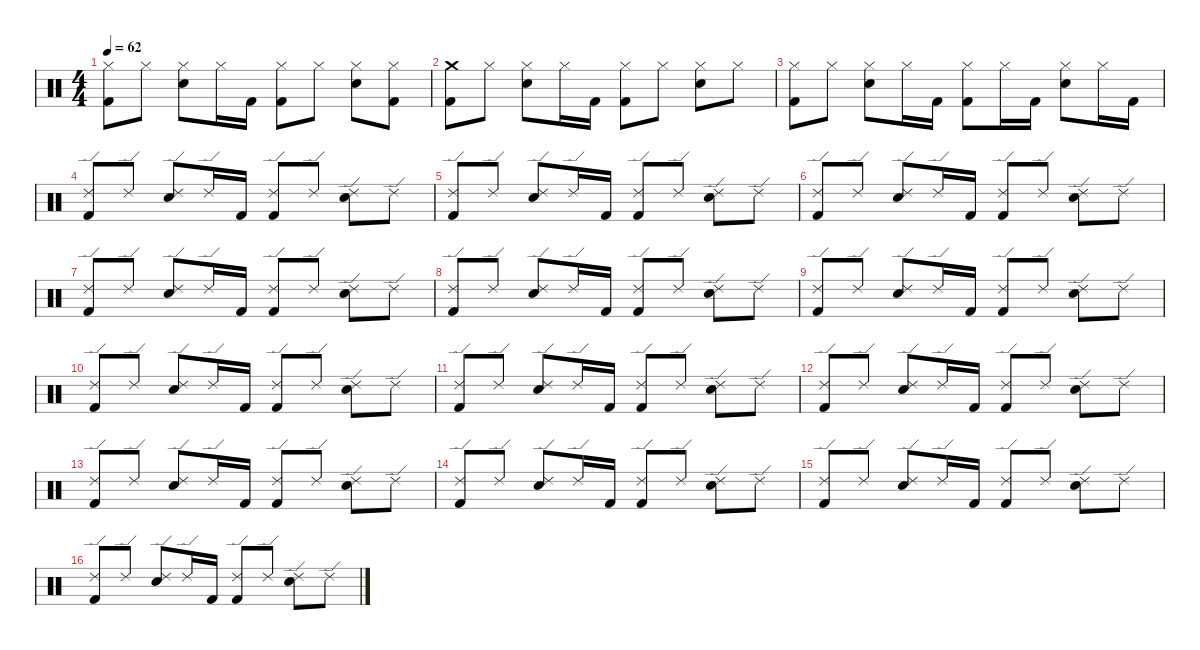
\defaultSystemsLayout 4
\hideDynamics
\bracketExtendMode nobrackets
\singleTrackTrackNamePolicy hidden
\multiTrackTrackNamePolicy hidden
\firstSystemTrackNameMode fullname
\otherSystemsTrackNameOrientation horizontal
\track ("Drums" "drm.") {instrument percussion}
\staff {score}
\articulation defaults
\ts (4 4)
\tempo 62
\clef neutral
\ks c
("Hi-Hat (closed)" "Kick (hit) 2").8{dy f beam Down} "Hi-Hat (closed)".8{beam Down} ("Hi-Hat (closed)" "Snare (hit) 2").8{beam Down} "Hi-Hat (closed)".16{beam Down} "Kick (hit) 2".16{beam Down} ("Hi-Hat (closed)" "Kick (hit) 2").8{beam Down} "Hi-Hat (closed)".8{beam Down} ("Hi-Hat (closed)" "Snare (hit) 2").8{beam Down} ("Hi-Hat (closed)" "Kick (hit) 2").8{beam Down} |
("Crash medium (hit)" "Kick (hit) 2").8{beam Down} "Hi-Hat (closed)".8{beam Down} ("Hi-Hat (closed)" "Snare (hit) 2").8{beam Down} "Hi-Hat (closed)".16{beam Down} "Kick (hit) 2".16{beam Down} ("Hi-Hat (closed)" "Kick (hit) 2").8{beam Down} "Hi-Hat (closed)".8{beam Down} ("Hi-Hat (closed)" "Snare (hit) 2").8{beam Down} "Hi-Hat (closed)".8{beam Down} |
("Hi-Hat (closed)" "Kick (hit) 2").8{beam Down} "Hi-Hat (closed)".8{beam Down} ("Hi-Hat (closed)" "Snare (hit) 2").8{beam Down} "Hi-Hat (closed)".16{beam Down} "Kick (hit) 2".16{beam Down} ("Hi-Hat (closed)" "Kick (hit) 2").8{beam Down} "Hi-Hat (closed)".16{beam Down} "Kick (hit) 2".16{beam Down} ("Hi-Hat (closed)" "Snare (hit) 2").8{beam Down} "Hi-Hat (closed)".16{beam Down} "Kick (hit) 2".16{beam Down} |
("Ride (edge) 2" "Kick (hit) 2").8{beam Up} "Ride (edge) 2".8{beam Up} ("Ride (edge) 2" "Snare (hit) 2").8{beam Up} "Ride (edge) 2".16{beam Up} "Kick (hit) 2".16{beam Up} ("Ride (edge) 2" "Kick (hit) 2").8{beam Up} "Ride (edge) 2".8{beam Up} ("Ride (edge) 2" "Snare (hit) 2").8{beam Down} "Ride (edge) 2".8{beam Down} |
("Ride (edge) 2" "Kick (hit) 2").8{beam Up} "Ride (edge) 2".8{beam Up} ("Ride (edge) 2" "Snare (hit) 2").8{beam Up} "Ride (edge) 2".16{beam Up} "Kick (hit) 2".16{beam Up} ("Ride (edge) 2" "Kick (hit) 2").8{beam Up} "Ride (edge) 2".8{beam Up} ("Ride (edge) 2" "Snare (hit) 2").8{beam Down} "Ride (edge) 2".8{beam Down} |
("Ride (edge) 2" "Kick (hit) 2").8{beam Up} "Ride (edge) 2".8{beam Up} ("Ride (edge) 2" "Snare (hit) 2").8{beam Up} "Ride (edge) 2".16{beam Up} "Kick (hit) 2".16{beam Up} ("Ride (edge) 2" "Kick (hit) 2").8{beam Up} "Ride (edge) 2".8{beam Up} ("Ride (edge) 2" "Snare (hit) 2").8{beam Down} "Ride (edge) 2".8{beam Down} |
("Ride (edge) 2" "Kick (hit) 2").8{beam Up} "Ride (edge) 2".8{beam Up} ("Ride (edge) 2" "Snare (hit) 2").8{beam Up} "Ride (edge) 2".16{beam Up} "Kick (hit) 2".16{beam Up} ("Ride (edge) 2" "Kick (hit) 2").8{beam Up} "Ride (edge) 2".8{beam Up} ("Ride (edge) 2" "Snare (hit) 2").8{beam Down} "Ride (edge) 2".8{beam Down} |
("Ride (edge) 2" "Kick (hit) 2").8{beam Up} "Ride (edge) 2".8{beam Up} ("Ride (edge) 2" "Snare (hit) 2").8{beam Up} "Ride (edge) 2".16{beam Up} "Kick (hit) 2".16{beam Up} ("Ride (edge) 2" "Kick (hit) 2").8{beam Up} "Ride (edge) 2".8{beam Up} ("Ride (edge) 2" "Snare (hit) 2").8{beam Down} "Ride (edge) 2".8{beam Down} |
("Ride (edge) 2" "Kick (hit) 2").8{beam Up} "Ride (edge) 2".8{beam Up} ("Ride (edge) 2" "Snare (hit) 2").8{beam Up} "Ride (edge) 2".16{beam Up} "Kick (hit) 2".16{beam Up} ("Ride (edge) 2" "Kick (hit) 2").8{beam Up} "Ride (edge) 2".8{beam Up} ("Ride (edge) 2" "Snare (hit) 2").8{beam Down} "Ride (edge) 2".8{beam Down} |
("Ride (edge) 2" "Kick (hit) 2").8{beam Up} "Ride (edge) 2".8{beam Up} ("Ride (edge) 2" "Snare (hit) 2").8{beam Up} "Ride (edge) 2".16{beam Up} "Kick (hit) 2".16{beam Up} ("Ride (edge) 2" "Kick (hit) 2").8{beam Up} "Ride (edge) 2".8{beam Up} ("Ride (edge) 2" "Snare (hit) 2").8{beam Down} "Ride (edge) 2".8{beam Down} |
("Ride (edge) 2" "Kick (hit) 2").8{beam Up} "Ride (edge) 2".8{beam Up} ("Ride (edge) 2" "Snare (hit) 2").8{beam Up} "Ride (edge) 2".16{beam Up} "Kick (hit) 2".16{beam Up} ("Ride (edge) 2" "Kick (hit) 2").8{beam Up} "Ride (edge) 2".8{beam Up} ("Ride (edge) 2" "Snare (hit) 2").8{beam Down} "Ride (edge) 2".8{beam Down} |
("Ride (edge) 2" "Kick (hit) 2").8{beam Up} "Ride (edge) 2".8{beam Up} ("Ride (edge) 2" "Snare (hit) 2").8{beam Up} "Ride (edge) 2".16{beam Up} "Kick (hit) 2".16{beam Up} ("Ride (edge) 2" "Kick (hit) 2").8{beam Up} "Ride (edge) 2".8{beam Up} ("Ride (edge) 2" "Snare (hit) 2").8{beam Down} "Ride (edge) 2".8{beam Down} |
("Ride (edge) 2" "Kick (hit) 2").8{beam Up} "Ride (edge) 2".8{beam Up} ("Ride (edge) 2" "Snare (hit) 2").8{beam Up} "Ride (edge) 2".16{beam Up} "Kick (hit) 2".16{beam Up} ("Ride (edge) 2" "Kick (hit) 2").8{beam Up} "Ride (edge) 2".8{beam Up} ("Ride (edge) 2" "Snare (hit) 2").8{beam Down} "Ride (edge) 2".8{beam Down} |
("Ride (edge) 2" "Kick (hit) 2").8{beam Up} "Ride (edge) 2".8{beam Up} ("Ride (edge) 2" "Snare (hit) 2").8{beam Up} "Ride (edge) 2".16{beam Up} "Kick (hit) 2".16{beam Up} ("Ride (edge) 2" "Kick (hit) 2").8{beam Up} "Ride (edge) 2".8{beam Up} ("Ride (edge) 2" "Snare (hit) 2").8{beam Down} "Ride (edge) 2".8{beam Down} |
("Ride (edge) 2" "Kick (hit) 2").8{beam Up} "Ride (edge) 2".8{beam Up} ("Ride (edge) 2" "Snare (hit) 2").8{beam Up} "Ride (edge) 2".16{beam Up} "Kick (hit) 2".16{beam Up} ("Ride (edge) 2" "Kick (hit) 2").8{beam Up} "Ride (edge) 2".8{beam Up} ("Ride (edge) 2" "Snare (hit) 2").8{beam Down} "Ride (edge) 2".8{beam Down} |
("Ride (edge) 2" "Kick (hit) 2").8{beam Up} "Ride (edge) 2".8{beam Up} ("Ride (edge) 2" "Snare (hit) 2").8{beam Up} "Ride (edge) 2".16{beam Up} "Kick (hit) 2".16{beam Up} ("Ride (edge) 2" "Kick (hit) 2").8{beam Up} "Ride (edge) 2".8{beam Up} ("Ride (edge) 2" "Snare (hit) 2").8{beam Down} "Ride (edge) 2".8{beam Down}
